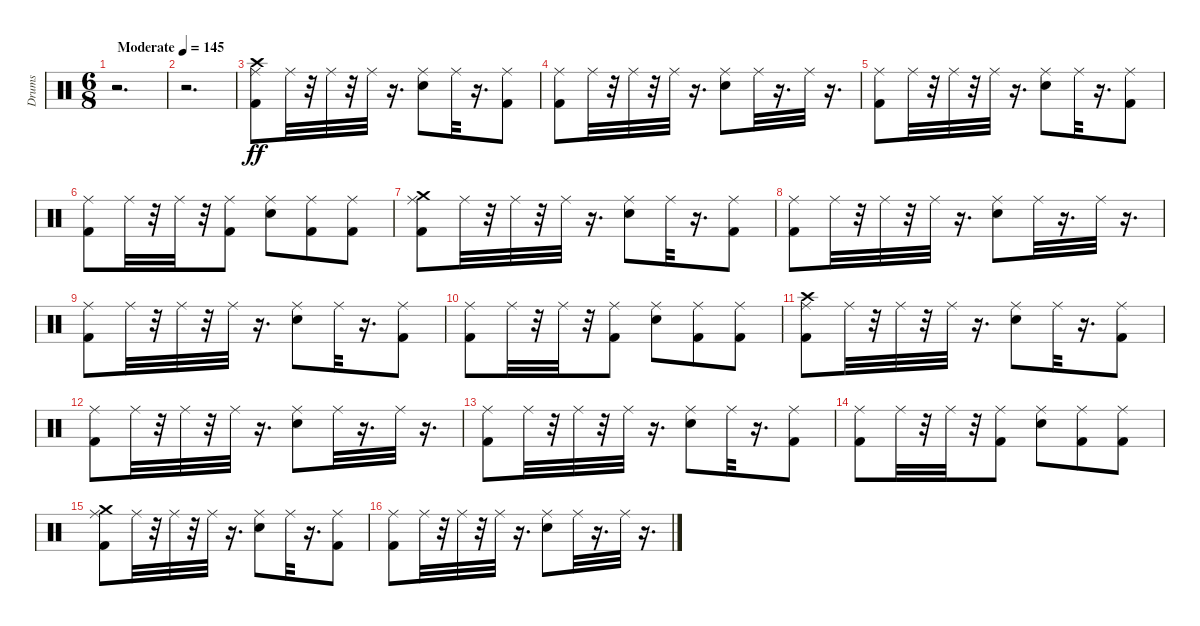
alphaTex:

\track ("Drums" "Drums") {instrument percussion}
\staff {score}
\articulation defaults
\ts (6 8)
\tempo (145 "Moderate")
\clef neutral
\ks c
r.2{d dy ff} |
r.2{d} |
("Kick (hit) 2" "Ride (middle)" "Crash high (hit)").8 "Ride (middle)".32 r.32 "Ride (middle)".32 r.32 "Ride (middle)".32 r.16{d} ("Snare (hit) 2" "Ride (middle)").8 "Ride (middle)".32 r.16{d} ("Kick (hit) 2" "Ride (middle)").8 |
("Kick (hit) 2" "Ride (middle)").8 "Ride (middle)".32 r.32 "Ride (middle)".32 r.32 "Ride (middle)".32 r.16{d} ("Snare (hit) 2" "Ride (middle)").8 "Ride (middle)".32 r.16{d} "Ride (middle)".32 r.16{d} |
("Kick (hit) 2" "Ride (middle)").8 "Ride (middle)".32 r.32 "Ride (middle)".32 r.32 "Ride (middle)".32 r.16{d} ("Snare (hit) 2" "Ride (middle)").8 "Ride (middle)".32 r.16{d} ("Kick (hit) 2" "Ride (middle)").8 |
("Kick (hit) 2" "Ride (middle)").8 "Ride (middle)".32 r.32 "Ride (middle)".32 r.32 ("Kick (hit) 2" "Ride (middle)").8 ("Snare (hit) 2" "Ride (middle)").8 ("Kick (hit) 2" "Ride (middle)").8 ("Kick (hit) 2" "Ride (middle)").8 |
("Kick (hit) 2" "Ride (middle)" "Crash medium (hit)").8 "Ride (middle)".32 r.32 "Ride (middle)".32 r.32 "Ride (middle)".32 r.16{d} ("Snare (hit) 2" "Ride (middle)").8 "Ride (middle)".32 r.16{d} ("Kick (hit) 2" "Ride (middle)").8 |
("Kick (hit) 2" "Ride (middle)").8 "Ride (middle)".32 r.32 "Ride (middle)".32 r.32 "Ride (middle)".32 r.16{d} ("Snare (hit) 2" "Ride (middle)").8 "Ride (middle)".32 r.16{d} "Ride (middle)".32 r.16{d} |
("Kick (hit) 2" "Ride (middle)").8 "Ride (middle)".32 r.32 "Ride (middle)".32 r.32 "Ride (middle)".32 r.16{d} ("Snare (hit) 2" "Ride (middle)").8 "Ride (middle)".32 r.16{d} ("Kick (hit) 2" "Ride (middle)").8 |
("Kick (hit) 2" "Ride (middle)").8 "Ride (middle)".32 r.32 "Ride (middle)".32 r.32 ("Kick (hit) 2" "Ride (middle)").8 ("Snare (hit) 2" "Ride (middle)").8 ("Kick (hit) 2" "Ride (middle)").8 ("Kick (hit) 2" "Ride (middle)").8 |
("Kick (hit) 2" "Ride (middle)" "Crash high (hit)").8 "Ride (middle)".32 r.32 "Ride (middle)".32 r.32 "Ride (middle)".32 r.16{d} ("Snare (hit) 2" "Ride (middle)").8 "Ride (middle)".32 r.16{d} ("Kick (hit) 2" "Ride (middle)").8 |
("Kick (hit) 2" "Ride (middle)").8 "Ride (middle)".32 r.32 "Ride (middle)".32 r.32 "Ride (middle)".32 r.16{d} ("Snare (hit) 2" "Ride (middle)").8 "Ride (middle)".32 r.16{d} "Ride (middle)".32 r.16{d} |
("Kick (hit) 2" "Ride (middle)").8 "Ride (middle)".32 r.32 "Ride (middle)".32 r.32 "Ride (middle)".32 r.16{d} ("Snare (hit) 2" "Ride (middle)").8 "Ride (middle)".32 r.16{d} ("Kick (hit) 2" "Ride (middle)").8 |
("Kick (hit) 2" "Ride (middle)").8 "Ride (middle)".32 r.32 "Ride (middle)".32 r.32 ("Kick (hit) 2" "Ride (middle)").8 ("Snare (hit) 2" "Ride (middle)").8 ("Kick (hit) 2" "Ride (middle)").8 ("Kick (hit) 2" "Ride (middle)").8 |
("Kick (hit) 2" "Ride (middle)" "Crash medium (hit)").8 "Ride (middle)".32 r.32 "Ride (middle)".32 r.32 "Ride (middle)".32 r.16{d} ("Snare (hit) 2" "Ride (middle)").8 "Ride (middle)".32 r.16{d} ("Kick (hit) 2" "Ride (middle)").8 |
("Kick (hit) 2" "Ride (middle)").8 "Ride (middle)".32 r.32 "Ride (middle)".32 r.32 "Ride (middle)".32 r.16{d} ("Snare (hit) 2" "Ride (middle)").8 "Ride (middle)".32 r.16{d} "Ride (middle)".32 r.16{d}
